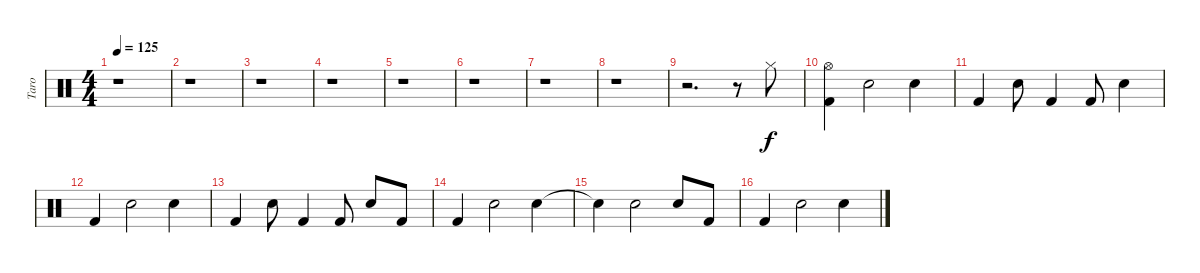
\track ("Taro" "Taro") {instrument percussion}
\staff {score}
\articulation defaults
\ts (4 4)
\tempo 125
\clef neutral
\ks c
r.1{dy f} |
r.1 |
r.1 |
r.1 |
r.1 |
r.1 |
r.1 |
r.1 |
r.2{d} r.8 "Hi-Hat (closed)".8 |
("Kick (hit) 2" "Hi-Hat (open)").4 "Electric Snare (hit)".2 "Electric Snare (hit)".4 |
"Kick (hit) 2".4 "Electric Snare (hit)".8 "Kick (hit) 2".4 "Kick (hit) 2".8 "Electric Snare (hit)".4 |
"Kick (hit) 2".4 "Electric Snare (hit)".2 "Electric Snare (hit)".4 |
"Kick (hit) 2".4 "Electric Snare (hit)".8 "Kick (hit) 2".4 "Kick (hit) 2".8 "Electric Snare (hit)".8 "Kick (hit) 2".8 |
"Kick (hit) 2".4 "Electric Snare (hit)".2 "Electric Snare (hit)".4 |
"Electric Snare (hit)"{t}.4 "Electric Snare (hit)".2 "Electric Snare (hit)".8 "Kick (hit) 2".8 |
"Kick (hit) 2".4 "Electric Snare (hit)".2 "Electric Snare (hit)".4
